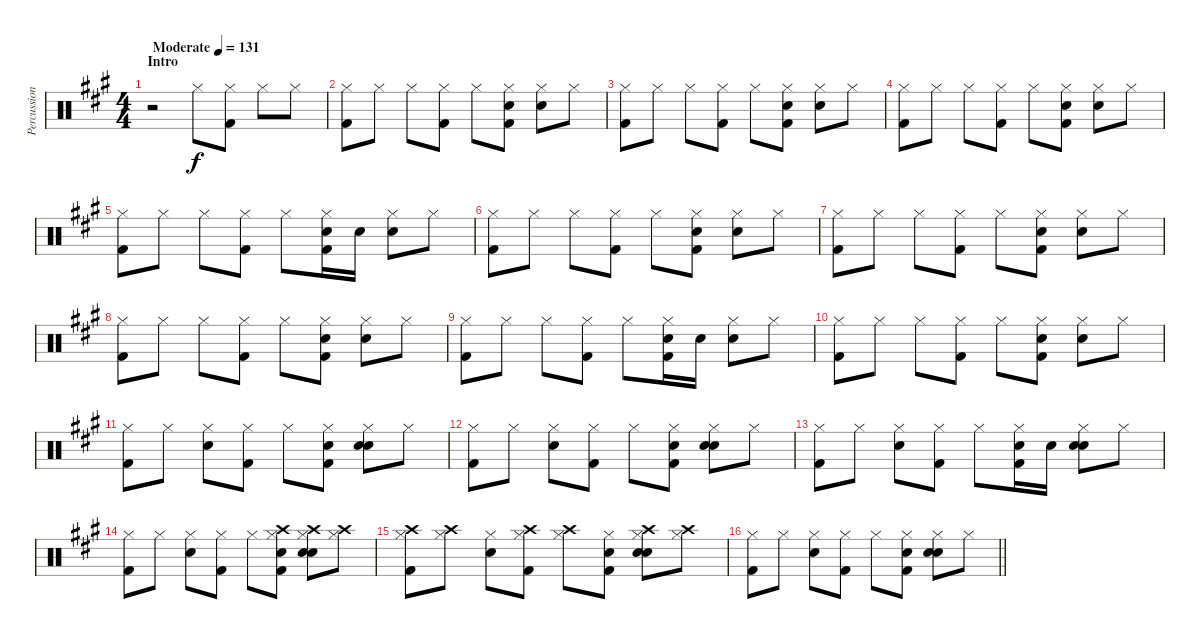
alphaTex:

\track ("Percussion" "Percussion") {instrument percussion bank 2}
\staff {score}
\articulation defaults
\ts (4 4)
\section ("" "Intro")
\tempo (131 "Moderate")
\clef neutral
\ks f#minor
r.2{dy f} "Hi-Hat (closed)".8 ("Hi-Hat (closed)" "Kick (hit) 2").8 "Hi-Hat (closed)".8 "Hi-Hat (closed)".8 |
("Hi-Hat (closed)" "Kick (hit) 2").8 "Hi-Hat (closed)".8 "Hi-Hat (closed)".8 ("Hi-Hat (closed)" "Kick (hit) 2").8 "Hi-Hat (closed)".8 ("Hi-Hat (closed)" "Hand Clap (hit)" "Kick (hit) 2").8 ("Hi-Hat (closed)" "Hand Clap (hit)").8 "Hi-Hat (closed)".8 |
("Hi-Hat (closed)" "Kick (hit) 2").8 "Hi-Hat (closed)".8 "Hi-Hat (closed)".8 ("Hi-Hat (closed)" "Kick (hit) 2").8 "Hi-Hat (closed)".8 ("Hi-Hat (closed)" "Hand Clap (hit)" "Kick (hit) 2").8 ("Hi-Hat (closed)" "Hand Clap (hit)").8 "Hi-Hat (closed)".8 |
("Hi-Hat (closed)" "Kick (hit) 2").8 "Hi-Hat (closed)".8 "Hi-Hat (closed)".8 ("Hi-Hat (closed)" "Kick (hit) 2").8 "Hi-Hat (closed)".8 ("Hi-Hat (closed)" "Hand Clap (hit)" "Kick (hit) 2").8 ("Hi-Hat (closed)" "Hand Clap (hit)").8 "Hi-Hat (closed)".8 |
("Hi-Hat (closed)" "Kick (hit) 2").8 "Hi-Hat (closed)".8 "Hi-Hat (closed)".8 ("Hi-Hat (closed)" "Kick (hit) 2").8 "Hi-Hat (closed)".8 ("Hi-Hat (closed)" "Hand Clap (hit)" "Kick (hit) 2").16 "Hand Clap (hit)".16 ("Hi-Hat (closed)" "Hand Clap (hit)").8 "Hi-Hat (closed)".8 |
("Hi-Hat (closed)" "Kick (hit) 2").8 "Hi-Hat (closed)".8 "Hi-Hat (closed)".8 ("Hi-Hat (closed)" "Kick (hit) 2").8 "Hi-Hat (closed)".8 ("Hi-Hat (closed)" "Hand Clap (hit)" "Kick (hit) 2").8 ("Hi-Hat (closed)" "Hand Clap (hit)").8 "Hi-Hat (closed)".8 |
("Hi-Hat (closed)" "Kick (hit) 2").8 "Hi-Hat (closed)".8 "Hi-Hat (closed)".8 ("Hi-Hat (closed)" "Kick (hit) 2").8 "Hi-Hat (closed)".8 ("Hi-Hat (closed)" "Hand Clap (hit)" "Kick (hit) 2").8 ("Hi-Hat (closed)" "Hand Clap (hit)").8 "Hi-Hat (closed)".8 |
("Hi-Hat (closed)" "Kick (hit) 2").8 "Hi-Hat (closed)".8 "Hi-Hat (closed)".8 ("Hi-Hat (closed)" "Kick (hit) 2").8 "Hi-Hat (closed)".8 ("Hi-Hat (closed)" "Hand Clap (hit)" "Kick (hit) 2").8 ("Hi-Hat (closed)" "Hand Clap (hit)").8 "Hi-Hat (closed)".8 |
("Hi-Hat (closed)" "Kick (hit) 2").8 "Hi-Hat (closed)".8 "Hi-Hat (closed)".8 ("Hi-Hat (closed)" "Kick (hit) 2").8 "Hi-Hat (closed)".8 ("Hi-Hat (closed)" "Hand Clap (hit)" "Kick (hit) 2").16 "Hand Clap (hit)".16 ("Hi-Hat (closed)" "Hand Clap (hit)").8 "Hi-Hat (closed)".8 |
("Hi-Hat (closed)" "Kick (hit) 2").8 "Hi-Hat (closed)".8 "Hi-Hat (closed)".8 ("Hi-Hat (closed)" "Kick (hit) 2").8 "Hi-Hat (closed)".8 ("Hi-Hat (closed)" "Hand Clap (hit)" "Kick (hit) 2").8 ("Hi-Hat (closed)" "Hand Clap (hit)").8 "Hi-Hat (closed)".8 |
("Hi-Hat (closed)" "Kick (hit) 2").8 "Hi-Hat (closed)".8 ("Hi-Hat (closed)" "Snare (hit) 2").8 ("Hi-Hat (closed)" "Kick (hit) 2").8 "Hi-Hat (closed)".8 ("Hi-Hat (closed)" "Hand Clap (hit)" "Kick (hit) 2").8 ("Hi-Hat (closed)" "Hand Clap (hit)" "Snare (hit) 2").8 "Hi-Hat (closed)".8 |
("Hi-Hat (closed)" "Kick (hit) 2").8 "Hi-Hat (closed)".8 ("Hi-Hat (closed)" "Snare (hit) 2").8 ("Hi-Hat (closed)" "Kick (hit) 2").8 "Hi-Hat (closed)".8 ("Hi-Hat (closed)" "Hand Clap (hit)" "Kick (hit) 2").8 ("Hi-Hat (closed)" "Hand Clap (hit)" "Snare (hit) 2").8 "Hi-Hat (closed)".8 |
("Hi-Hat (closed)" "Kick (hit) 2").8 "Hi-Hat (closed)".8 ("Hi-Hat (closed)" "Snare (hit) 2").8 ("Hi-Hat (closed)" "Kick (hit) 2").8 "Hi-Hat (closed)".8 ("Hi-Hat (closed)" "Hand Clap (hit)" "Kick (hit) 2").16 "Hand Clap (hit)".16 ("Hi-Hat (closed)" "Hand Clap (hit)" "Snare (hit) 2").8 "Hi-Hat (closed)".8 |
("Hi-Hat (closed)" "Kick (hit) 2").8 "Hi-Hat (closed)".8 ("Hi-Hat (closed)" "Snare (hit) 2").8 ("Hi-Hat (closed)" "Kick (hit) 2").8 "Hi-Hat (closed)".8 ("Crash high (hit)" "Hi-Hat (closed)" "Hand Clap (hit)" "Kick (hit) 2").8 ("Crash high (hit)" "Hi-Hat (closed)" "Hand Clap (hit)" "Snare (hit) 2").8 ("Crash high (hit)" "Hi-Hat (closed)").8 |
("Crash high (hit)" "Hi-Hat (closed)" "Kick (hit) 2").8 ("Crash high (hit)" "Hi-Hat (closed)").8 ("Hi-Hat (closed)" "Snare (hit) 2").8 ("Crash high (hit)" "Hi-Hat (closed)" "Kick (hit) 2").8 ("Crash high (hit)" "Hi-Hat (closed)").8 ("Hi-Hat (closed)" "Hand Clap (hit)" "Kick (hit) 2").8 ("Crash high (hit)" "Hi-Hat (closed)" "Hand Clap (hit)" "Snare (hit) 2").8 ("Crash high (hit)" "Hi-Hat (closed)").8 |
\barLineRight lightlight
("Hi-Hat (closed)" "Kick (hit) 2").8 "Hi-Hat (closed)".8 ("Hi-Hat (closed)" "Snare (hit) 2").8 ("Hi-Hat (closed)" "Kick (hit) 2").8 "Hi-Hat (closed)".8 ("Hi-Hat (closed)" "Hand Clap (hit)" "Kick (hit) 2").8 ("Hi-Hat (closed)" "Hand Clap (hit)" "Snare (hit) 2").8 "Hi-Hat (closed)".8
